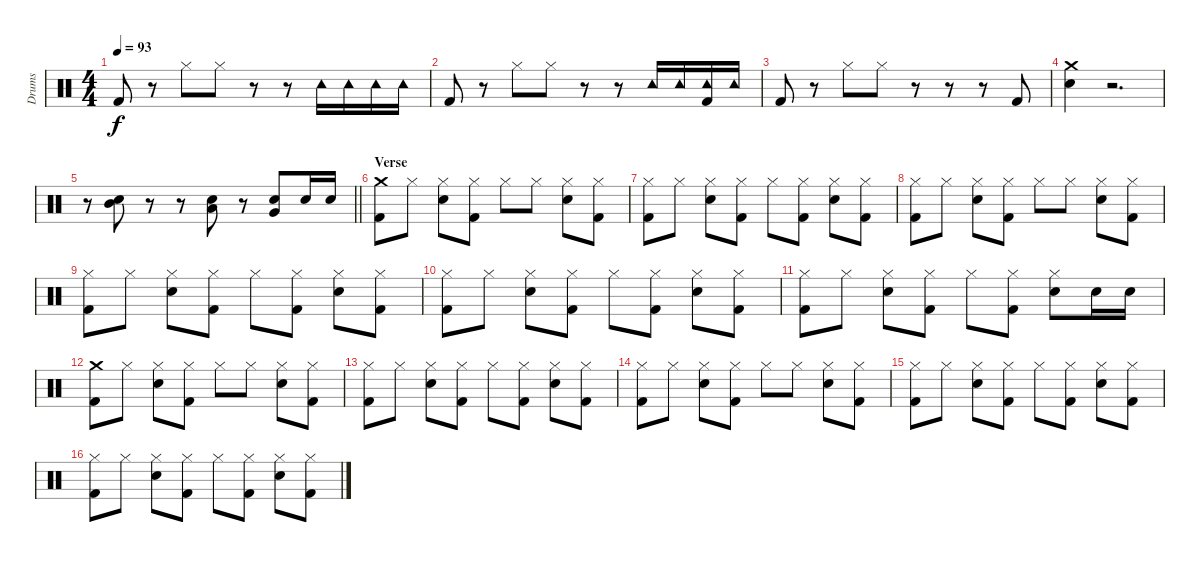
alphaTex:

\track ("Drums" "Drums") {instrument percussion}
\staff {score}
\articulation defaults
\ts (4 4)
\tempo 93
\clef neutral
\ks c "Kick (hit) 2".8{dy f}
r.8 "Hi-Hat (closed)".8 "Hi-Hat (closed)".8 r.8 r.8 "Tambourine (hit)".16 "Tambourine (hit)".16 "Tambourine (hit)".16 "Tambourine (hit)".16 |
"Kick (hit) 2".8 r.8 "Hi-Hat (closed)".8 "Hi-Hat (closed)".8 r.8 r.8 "Tambourine (hit)".16 "Tambourine (hit)".16 ("Tambourine (hit)" "Kick (hit) 2").16 "Tambourine (hit)".16 |
"Kick (hit) 2".8 r.8 "Hi-Hat (closed)".8 "Hi-Hat (closed)".8 r.8 r.8 r.8 "Kick (hit) 2".8 |
("Crash medium (hit)" "Hand Clap (hit)").4 r.2{d} |
\barLineRight lightlight
r.8 ("Electric Snare (hit)" "Mid Tom (hit)").8 r.8 r.8 ("Electric Snare (hit)" "Low Tom (hit)").8 r.8 ("Electric Snare (hit)" "Very Low Tom (hit)").8 "Electric Snare (hit)".16 "Electric Snare (hit)".16 |
\section ("" "Verse")
("Crash medium (hit)" "Kick (hit) 2").8 "Hi-Hat (closed)".8 ("Hi-Hat (closed)" "Electric Snare (hit)").8 ("Hi-Hat (closed)" "Kick (hit) 2").8 "Hi-Hat (closed)".8 "Hi-Hat (closed)".8 ("Hi-Hat (closed)" "Electric Snare (hit)").8 ("Hi-Hat (closed)" "Kick (hit) 2").8 |
("Hi-Hat (closed)" "Kick (hit) 2").8 "Hi-Hat (closed)".8 ("Hi-Hat (closed)" "Electric Snare (hit)").8 ("Hi-Hat (closed)" "Kick (hit) 2").8 "Hi-Hat (closed)".8 ("Hi-Hat (closed)" "Kick (hit) 2").8 ("Hi-Hat (closed)" "Electric Snare (hit)").8 ("Hi-Hat (closed)" "Kick (hit) 2").8 |
("Hi-Hat (closed)" "Kick (hit) 2").8 "Hi-Hat (closed)".8 ("Hi-Hat (closed)" "Electric Snare (hit)").8 ("Hi-Hat (closed)" "Kick (hit) 2").8 "Hi-Hat (closed)".8 "Hi-Hat (closed)".8 ("Hi-Hat (closed)" "Electric Snare (hit)").8 ("Hi-Hat (closed)" "Kick (hit) 2").8 |
("Hi-Hat (closed)" "Kick (hit) 2").8 "Hi-Hat (closed)".8 ("Hi-Hat (closed)" "Electric Snare (hit)").8 ("Hi-Hat (closed)" "Kick (hit) 2").8 "Hi-Hat (closed)".8 ("Hi-Hat (closed)" "Kick (hit) 2").8 ("Hi-Hat (closed)" "Electric Snare (hit)").8 ("Hi-Hat (closed)" "Kick (hit) 2").8 |
("Hi-Hat (closed)" "Kick (hit) 2").8 "Hi-Hat (closed)".8 ("Hi-Hat (closed)" "Electric Snare (hit)").8 ("Hi-Hat (closed)" "Kick (hit) 2").8 "Hi-Hat (closed)".8 ("Hi-Hat (closed)" "Kick (hit) 2").8 ("Hi-Hat (closed)" "Electric Snare (hit)").8 ("Hi-Hat (closed)" "Kick (hit) 2").8 |
("Hi-Hat (closed)" "Kick (hit) 2").8 "Hi-Hat (closed)".8 ("Hi-Hat (closed)" "Electric Snare (hit)").8 ("Hi-Hat (closed)" "Kick (hit) 2").8 "Hi-Hat (closed)".8 ("Hi-Hat (closed)" "Kick (hit) 2").8 ("Hi-Hat (closed)" "Electric Snare (hit)").8 "Electric Snare (hit)".16 "Electric Snare (hit)".16 |
("Crash medium (hit)" "Kick (hit) 2").8 "Hi-Hat (closed)".8 ("Hi-Hat (closed)" "Electric Snare (hit)").8 ("Hi-Hat (closed)" "Kick (hit) 2").8 "Hi-Hat (closed)".8 "Hi-Hat (closed)".8 ("Hi-Hat (closed)" "Electric Snare (hit)").8 ("Hi-Hat (closed)" "Kick (hit) 2").8 |
("Hi-Hat (closed)" "Kick (hit) 2").8 "Hi-Hat (closed)".8 ("Hi-Hat (closed)" "Electric Snare (hit)").8 ("Hi-Hat (closed)" "Kick (hit) 2").8 "Hi-Hat (closed)".8 ("Hi-Hat (closed)" "Kick (hit) 2").8 ("Hi-Hat (closed)" "Electric Snare (hit)").8 ("Hi-Hat (closed)" "Kick (hit) 2").8 |
("Hi-Hat (closed)" "Kick (hit) 2").8 "Hi-Hat (closed)".8 ("Hi-Hat (closed)" "Electric Snare (hit)").8 ("Hi-Hat (closed)" "Kick (hit) 2").8 "Hi-Hat (closed)".8 "Hi-Hat (closed)".8 ("Hi-Hat (closed)" "Electric Snare (hit)").8 ("Hi-Hat (closed)" "Kick (hit) 2").8 |
("Hi-Hat (closed)" "Kick (hit) 2").8 "Hi-Hat (closed)".8 ("Hi-Hat (closed)" "Electric Snare (hit)").8 ("Hi-Hat (closed)" "Kick (hit) 2").8 "Hi-Hat (closed)".8 ("Hi-Hat (closed)" "Kick (hit) 2").8 ("Hi-Hat (closed)" "Electric Snare (hit)").8 ("Hi-Hat (closed)" "Kick (hit) 2").8 |
("Hi-Hat (closed)" "Kick (hit) 2").8 "Hi-Hat (closed)".8 ("Hi-Hat (closed)" "Electric Snare (hit)").8 ("Hi-Hat (closed)" "Kick (hit) 2").8 "Hi-Hat (closed)".8 ("Hi-Hat (closed)" "Kick (hit) 2").8 ("Hi-Hat (closed)" "Electric Snare (hit)").8 ("Hi-Hat (closed)" "Kick (hit) 2").8
